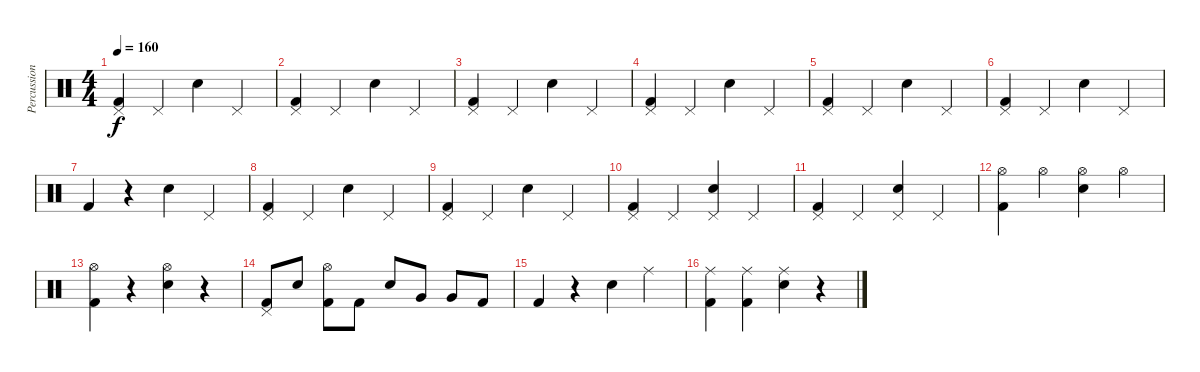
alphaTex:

\track ("Percussion" "Percussion") {instrument percussion}
\staff {score}
\articulation defaults
\ts (4 4)
\tempo 160
\clef neutral
\ks c
("Pedal Hi-Hat (hit)" "Kick (hit) 2").4{dy f} "Pedal Hi-Hat (hit)".4 "Snare (hit) 2".4 "Pedal Hi-Hat (hit)".4 |
("Pedal Hi-Hat (hit)" "Kick (hit) 2").4 "Pedal Hi-Hat (hit)".4 "Snare (hit) 2".4 "Pedal Hi-Hat (hit)".4 |
("Pedal Hi-Hat (hit)" "Kick (hit) 2").4 "Pedal Hi-Hat (hit)".4 "Snare (hit) 2".4 "Pedal Hi-Hat (hit)".4 |
("Pedal Hi-Hat (hit)" "Kick (hit) 2").4 "Pedal Hi-Hat (hit)".4 "Snare (hit) 2".4 "Pedal Hi-Hat (hit)".4 |
("Pedal Hi-Hat (hit)" "Kick (hit) 2").4 "Pedal Hi-Hat (hit)".4 "Snare (hit) 2".4 "Pedal Hi-Hat (hit)".4 |
("Pedal Hi-Hat (hit)" "Kick (hit) 2").4 "Pedal Hi-Hat (hit)".4 "Snare (hit) 2".4 "Pedal Hi-Hat (hit)".4 |
"Kick (hit) 2".4 r.4 "Snare (hit) 2".4 "Pedal Hi-Hat (hit)".4 |
("Pedal Hi-Hat (hit)" "Kick (hit) 2").4 "Pedal Hi-Hat (hit)".4 "Snare (hit) 2".4 "Pedal Hi-Hat (hit)".4 |
("Pedal Hi-Hat (hit)" "Kick (hit) 2").4 "Pedal Hi-Hat (hit)".4 "Snare (hit) 2".4 "Pedal Hi-Hat (hit)".4 |
("Pedal Hi-Hat (hit)" "Kick (hit) 2").4 "Pedal Hi-Hat (hit)".4 ("Pedal Hi-Hat (hit)" "Snare (hit) 2").4 "Pedal Hi-Hat (hit)".4 |
("Pedal Hi-Hat (hit)" "Kick (hit) 2").4 "Pedal Hi-Hat (hit)".4 ("Pedal Hi-Hat (hit)" "Snare (hit) 2").4 "Pedal Hi-Hat (hit)".4 |
("Hi-Hat (open)" "Kick (hit) 2").4 "Hi-Hat (open)".4 ("Hi-Hat (open)" "Snare (hit) 2").4 "Hi-Hat (open)".4 |
("Hi-Hat (open)" "Kick (hit) 2").4 r.4 ("Hi-Hat (open)" "Snare (hit) 2").4 r.4 |
("Pedal Hi-Hat (hit)" "Kick (hit) 2").8 "Snare (hit) 2".8 ("Hi-Hat (open)" "Kick (hit) 2").8 "Kick (hit) 2".8 "Snare (hit) 2".8 "Very Low Tom (hit)".8 "Very Low Tom (hit)".8 "Kick (hit) 2".8 |
"Kick (hit) 2".4 r.4 "Snare (hit) 2".4 "Ride (middle)".4 |
("Ride (middle)" "Kick (hit) 2").4 ("Ride (middle)" "Kick (hit) 2").4 ("Ride (middle)" "Snare (hit) 2").4 r.4
